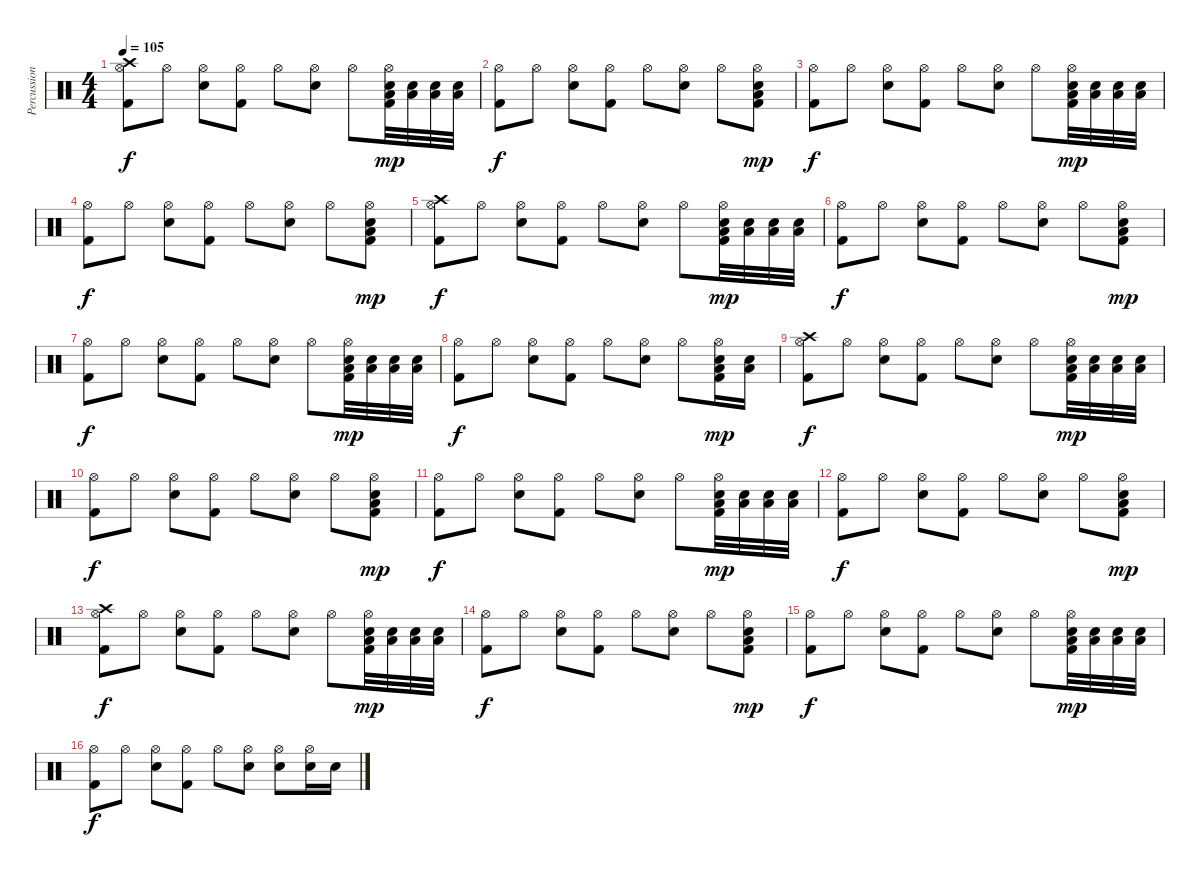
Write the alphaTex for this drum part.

\track ("Percussion" "Percussion") {instrument percussion}
\staff {score}
\articulation defaults
\ts (4 4)
\tempo 105
\clef neutral
\ks c
("Crash high (hit)" "Hi-Hat (open)" "Kick (hit) 2").8{dy f} "Hi-Hat (open)".8 ("Hi-Hat (open)" "Snare (hit) 2").8 ("Hi-Hat (open)" "Kick (hit) 2").8 "Hi-Hat (open)".8 ("Hi-Hat (open)" "Snare (hit) 2").8 "Hi-Hat (open)".8 ("Hi-Hat (open)" "Electric Snare (hit)" "Low Floor Tom (hit)" "Kick (hit) 2").32{dy mp} ("Electric Snare (hit)" "Low Floor Tom (hit)").32 ("Electric Snare (hit)" "Low Floor Tom (hit)").32 ("Electric Snare (hit)" "Low Floor Tom (hit)").32 |
("Hi-Hat (open)" "Kick (hit) 2").8{dy f} "Hi-Hat (open)".8 ("Hi-Hat (open)" "Snare (hit) 2").8 ("Hi-Hat (open)" "Kick (hit) 2").8 "Hi-Hat (open)".8 ("Hi-Hat (open)" "Snare (hit) 2").8 "Hi-Hat (open)".8 ("Hi-Hat (open)" "Electric Snare (hit)" "Low Floor Tom (hit)" "Kick (hit) 2").8{dy mp} |
("Hi-Hat (open)" "Kick (hit) 2").8{dy f} "Hi-Hat (open)".8 ("Hi-Hat (open)" "Snare (hit) 2").8 ("Hi-Hat (open)" "Kick (hit) 2").8 "Hi-Hat (open)".8 ("Hi-Hat (open)" "Snare (hit) 2").8 "Hi-Hat (open)".8 ("Hi-Hat (open)" "Electric Snare (hit)" "Low Floor Tom (hit)" "Kick (hit) 2").32{dy mp} ("Electric Snare (hit)" "Low Floor Tom (hit)").32 ("Electric Snare (hit)" "Low Floor Tom (hit)").32 ("Electric Snare (hit)" "Low Floor Tom (hit)").32 |
("Hi-Hat (open)" "Kick (hit) 2").8{dy f} "Hi-Hat (open)".8 ("Hi-Hat (open)" "Snare (hit) 2").8 ("Hi-Hat (open)" "Kick (hit) 2").8 "Hi-Hat (open)".8 ("Hi-Hat (open)" "Snare (hit) 2").8 "Hi-Hat (open)".8 ("Hi-Hat (open)" "Electric Snare (hit)" "Low Floor Tom (hit)" "Kick (hit) 2").8{dy mp} |
("Crash high (hit)" "Hi-Hat (open)" "Kick (hit) 2").8{dy f} "Hi-Hat (open)".8 ("Hi-Hat (open)" "Snare (hit) 2").8 ("Hi-Hat (open)" "Kick (hit) 2").8 "Hi-Hat (open)".8 ("Hi-Hat (open)" "Snare (hit) 2").8 "Hi-Hat (open)".8 ("Hi-Hat (open)" "Electric Snare (hit)" "Low Floor Tom (hit)" "Kick (hit) 2").32{dy mp} ("Electric Snare (hit)" "Low Floor Tom (hit)").32 ("Electric Snare (hit)" "Low Floor Tom (hit)").32 ("Electric Snare (hit)" "Low Floor Tom (hit)").32 |
("Hi-Hat (open)" "Kick (hit) 2").8{dy f} "Hi-Hat (open)".8 ("Hi-Hat (open)" "Snare (hit) 2").8 ("Hi-Hat (open)" "Kick (hit) 2").8 "Hi-Hat (open)".8 ("Hi-Hat (open)" "Snare (hit) 2").8 "Hi-Hat (open)".8 ("Hi-Hat (open)" "Electric Snare (hit)" "Low Floor Tom (hit)" "Kick (hit) 2").8{dy mp} |
("Hi-Hat (open)" "Kick (hit) 2").8{dy f} "Hi-Hat (open)".8 ("Hi-Hat (open)" "Snare (hit) 2").8 ("Hi-Hat (open)" "Kick (hit) 2").8 "Hi-Hat (open)".8 ("Hi-Hat (open)" "Snare (hit) 2").8 "Hi-Hat (open)".8 ("Hi-Hat (open)" "Electric Snare (hit)" "Low Floor Tom (hit)" "Kick (hit) 2").32{dy mp} ("Electric Snare (hit)" "Low Floor Tom (hit)").32 ("Electric Snare (hit)" "Low Floor Tom (hit)").32 ("Electric Snare (hit)" "Low Floor Tom (hit)").32 |
("Hi-Hat (open)" "Kick (hit) 2").8{dy f} "Hi-Hat (open)".8 ("Hi-Hat (open)" "Snare (hit) 2").8 ("Hi-Hat (open)" "Kick (hit) 2").8 "Hi-Hat (open)".8 ("Hi-Hat (open)" "Snare (hit) 2").8 "Hi-Hat (open)".8 ("Hi-Hat (open)" "Electric Snare (hit)" "Low Floor Tom (hit)" "Kick (hit) 2").16{dy mp} ("Electric Snare (hit)" "Low Floor Tom (hit)").16 |
("Crash high (hit)" "Hi-Hat (open)" "Kick (hit) 2").8{dy f volume 8} "Hi-Hat (open)".8 ("Hi-Hat (open)" "Snare (hit) 2").8 ("Hi-Hat (open)" "Kick (hit) 2").8 "Hi-Hat (open)".8 ("Hi-Hat (open)" "Snare (hit) 2").8 "Hi-Hat (open)".8 ("Hi-Hat (open)" "Electric Snare (hit)" "Low Floor Tom (hit)" "Kick (hit) 2").32{dy mp} ("Electric Snare (hit)" "Low Floor Tom (hit)").32 ("Electric Snare (hit)" "Low Floor Tom (hit)").32 ("Electric Snare (hit)" "Low Floor Tom (hit)").32 |
("Hi-Hat (open)" "Kick (hit) 2").8{dy f} "Hi-Hat (open)".8 ("Hi-Hat (open)" "Snare (hit) 2").8 ("Hi-Hat (open)" "Kick (hit) 2").8 "Hi-Hat (open)".8 ("Hi-Hat (open)" "Snare (hit) 2").8 "Hi-Hat (open)".8 ("Hi-Hat (open)" "Electric Snare (hit)" "Low Floor Tom (hit)" "Kick (hit) 2").8{dy mp} |
("Hi-Hat (open)" "Kick (hit) 2").8{dy f} "Hi-Hat (open)".8 ("Hi-Hat (open)" "Snare (hit) 2").8 ("Hi-Hat (open)" "Kick (hit) 2").8 "Hi-Hat (open)".8 ("Hi-Hat (open)" "Snare (hit) 2").8 "Hi-Hat (open)".8 ("Hi-Hat (open)" "Electric Snare (hit)" "Low Floor Tom (hit)" "Kick (hit) 2").32{dy mp} ("Electric Snare (hit)" "Low Floor Tom (hit)").32 ("Electric Snare (hit)" "Low Floor Tom (hit)").32 ("Electric Snare (hit)" "Low Floor Tom (hit)").32 |
("Hi-Hat (open)" "Kick (hit) 2").8{dy f} "Hi-Hat (open)".8 ("Hi-Hat (open)" "Snare (hit) 2").8 ("Hi-Hat (open)" "Kick (hit) 2").8 "Hi-Hat (open)".8 ("Hi-Hat (open)" "Snare (hit) 2").8 "Hi-Hat (open)".8 ("Hi-Hat (open)" "Electric Snare (hit)" "Low Floor Tom (hit)" "Kick (hit) 2").8{dy mp} |
("Crash high (hit)" "Hi-Hat (open)" "Kick (hit) 2").8{dy f volume 0} "Hi-Hat (open)".8 ("Hi-Hat (open)" "Snare (hit) 2").8 ("Hi-Hat (open)" "Kick (hit) 2").8 "Hi-Hat (open)".8 ("Hi-Hat (open)" "Snare (hit) 2").8 "Hi-Hat (open)".8 ("Hi-Hat (open)" "Electric Snare (hit)" "Low Floor Tom (hit)" "Kick (hit) 2").32{dy mp} ("Electric Snare (hit)" "Low Floor Tom (hit)").32 ("Electric Snare (hit)" "Low Floor Tom (hit)").32 ("Electric Snare (hit)" "Low Floor Tom (hit)").32 |
("Hi-Hat (open)" "Kick (hit) 2").8{dy f} "Hi-Hat (open)".8 ("Hi-Hat (open)" "Snare (hit) 2").8 ("Hi-Hat (open)" "Kick (hit) 2").8 "Hi-Hat (open)".8 ("Hi-Hat (open)" "Snare (hit) 2").8 "Hi-Hat (open)".8 ("Hi-Hat (open)" "Electric Snare (hit)" "Low Floor Tom (hit)" "Kick (hit) 2").8{dy mp} |
("Hi-Hat (open)" "Kick (hit) 2").8{dy f} "Hi-Hat (open)".8 ("Hi-Hat (open)" "Snare (hit) 2").8 ("Hi-Hat (open)" "Kick (hit) 2").8 "Hi-Hat (open)".8 ("Hi-Hat (open)" "Snare (hit) 2").8 "Hi-Hat (open)".8 ("Hi-Hat (open)" "Electric Snare (hit)" "Low Floor Tom (hit)" "Kick (hit) 2").32{dy mp} ("Electric Snare (hit)" "Low Floor Tom (hit)").32 ("Electric Snare (hit)" "Low Floor Tom (hit)").32 ("Electric Snare (hit)" "Low Floor Tom (hit)").32 |
("Hi-Hat (open)" "Kick (hit) 2").8{dy f} "Hi-Hat (open)".8 ("Hi-Hat (open)" "Snare (hit) 2").8 ("Hi-Hat (open)" "Kick (hit) 2").8 "Hi-Hat (open)".8 ("Hi-Hat (open)" "Snare (hit) 2").8 ("Hi-Hat (open)" "Snare (hit) 2").8 ("Hi-Hat (open)" "Snare (hit) 2").16 "Snare (hit) 2".16
